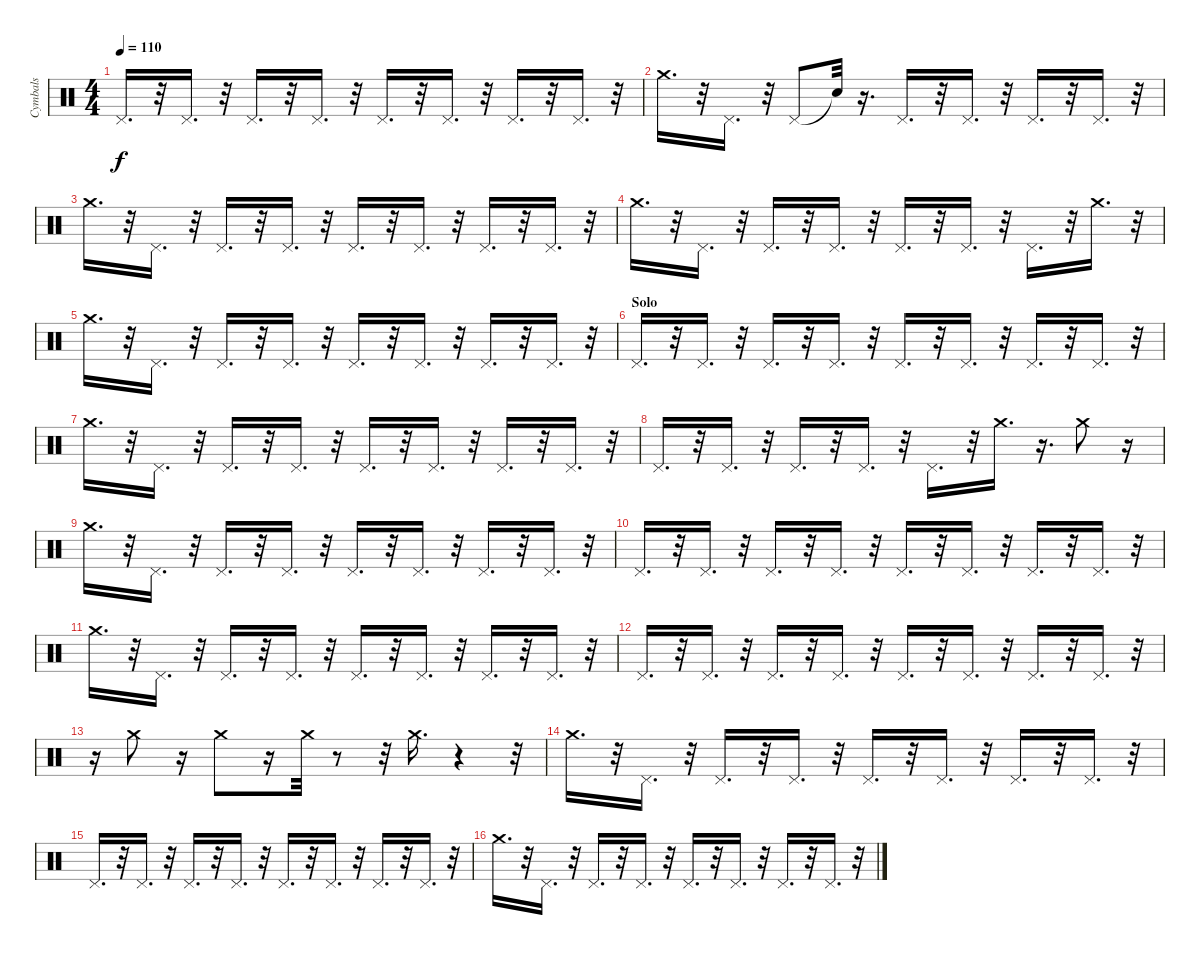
\track ("Cymbals" "Cymbals") {instrument percussion}
\staff {score}
\articulation defaults
\ts (4 4)
\tempo 110
\clef neutral
\ks c "Pedal Hi-Hat (hit)".16{d dy f}
r.32 "Pedal Hi-Hat (hit)".16{d} r.32 "Pedal Hi-Hat (hit)".16{d} r.32 "Pedal Hi-Hat (hit)".16{d} r.32 "Pedal Hi-Hat (hit)".16{d} r.32 "Pedal Hi-Hat (hit)".16{d} r.32 "Pedal Hi-Hat (hit)".16{d} r.32 "Pedal Hi-Hat (hit)".16{d} r.32 |
"Crash medium (hit)".16{d} r.32 "Pedal Hi-Hat (hit)".16{d} r.32 "Pedal Hi-Hat (hit)".8 "Snare (hit)"{t}.32 r.16{d} "Pedal Hi-Hat (hit)".16{d} r.32 "Pedal Hi-Hat (hit)".16{d} r.32 "Pedal Hi-Hat (hit)".16{d} r.32 "Pedal Hi-Hat (hit)".16{d} r.32 |
"Crash medium (hit)".16{d} r.32 "Pedal Hi-Hat (hit)".16{d} r.32 "Pedal Hi-Hat (hit)".16{d} r.32 "Pedal Hi-Hat (hit)".16{d} r.32 "Pedal Hi-Hat (hit)".16{d} r.32 "Pedal Hi-Hat (hit)".16{d} r.32 "Pedal Hi-Hat (hit)".16{d} r.32 "Pedal Hi-Hat (hit)".16{d} r.32 |
"Crash medium (hit)".16{d} r.32 "Pedal Hi-Hat (hit)".16{d} r.32 "Pedal Hi-Hat (hit)".16{d} r.32 "Pedal Hi-Hat (hit)".16{d} r.32 "Pedal Hi-Hat (hit)".16{d} r.32 "Pedal Hi-Hat (hit)".16{d} r.32 "Pedal Hi-Hat (hit)".16{d} r.32 "Crash medium (hit)".16{d} r.32 |
"Crash medium (hit)".16{d} r.32 "Pedal Hi-Hat (hit)".16{d} r.32 "Pedal Hi-Hat (hit)".16{d} r.32 "Pedal Hi-Hat (hit)".16{d} r.32 "Pedal Hi-Hat (hit)".16{d} r.32 "Pedal Hi-Hat (hit)".16{d} r.32 "Pedal Hi-Hat (hit)".16{d} r.32 "Pedal Hi-Hat (hit)".16{d} r.32 |
\section ("" "Solo")
"Pedal Hi-Hat (hit)".16{d} r.32 "Pedal Hi-Hat (hit)".16{d} r.32 "Pedal Hi-Hat (hit)".16{d} r.32 "Pedal Hi-Hat (hit)".16{d} r.32 "Pedal Hi-Hat (hit)".16{d} r.32 "Pedal Hi-Hat (hit)".16{d} r.32 "Pedal Hi-Hat (hit)".16{d} r.32 "Pedal Hi-Hat (hit)".16{d} r.32 |
"Crash medium (hit)".16{d} r.32 "Pedal Hi-Hat (hit)".16{d} r.32 "Pedal Hi-Hat (hit)".16{d} r.32 "Pedal Hi-Hat (hit)".16{d} r.32 "Pedal Hi-Hat (hit)".16{d} r.32 "Pedal Hi-Hat (hit)".16{d} r.32 "Pedal Hi-Hat (hit)".16{d} r.32 "Pedal Hi-Hat (hit)".16{d} r.32 |
"Pedal Hi-Hat (hit)".16{d} r.32 "Pedal Hi-Hat (hit)".16{d} r.32 "Pedal Hi-Hat (hit)".16{d} r.32 "Pedal Hi-Hat (hit)".16{d} r.32 "Pedal Hi-Hat (hit)".16{d} r.32 "Crash medium (hit)".16{d} r.16{d} "Crash medium (hit)".8 r.16 |
"Crash medium (hit)".16{d} r.32 "Pedal Hi-Hat (hit)".16{d} r.32 "Pedal Hi-Hat (hit)".16{d} r.32 "Pedal Hi-Hat (hit)".16{d} r.32 "Pedal Hi-Hat (hit)".16{d} r.32 "Pedal Hi-Hat (hit)".16{d} r.32 "Pedal Hi-Hat (hit)".16{d} r.32 "Pedal Hi-Hat (hit)".16{d} r.32 |
"Pedal Hi-Hat (hit)".16{d} r.32 "Pedal Hi-Hat (hit)".16{d} r.32 "Pedal Hi-Hat (hit)".16{d} r.32 "Pedal Hi-Hat (hit)".16{d} r.32 "Pedal Hi-Hat (hit)".16{d} r.32 "Pedal Hi-Hat (hit)".16{d} r.32 "Pedal Hi-Hat (hit)".16{d} r.32 "Pedal Hi-Hat (hit)".16{d} r.32 |
"Crash medium (hit)".16{d} r.32 "Pedal Hi-Hat (hit)".16{d} r.32 "Pedal Hi-Hat (hit)".16{d} r.32 "Pedal Hi-Hat (hit)".16{d} r.32 "Pedal Hi-Hat (hit)".16{d} r.32 "Pedal Hi-Hat (hit)".16{d} r.32 "Pedal Hi-Hat (hit)".16{d} r.32 "Pedal Hi-Hat (hit)".16{d} r.32 |
"Pedal Hi-Hat (hit)".16{d} r.32 "Pedal Hi-Hat (hit)".16{d} r.32 "Pedal Hi-Hat (hit)".16{d} r.32 "Pedal Hi-Hat (hit)".16{d} r.32 "Pedal Hi-Hat (hit)".16{d} r.32 "Pedal Hi-Hat (hit)".16{d} r.32 "Pedal Hi-Hat (hit)".16{d} r.32 "Pedal Hi-Hat (hit)".16{d} r.32 |
r.16 "Crash medium (hit)".8 r.16 "Crash medium (hit)".8 r.16 "Crash medium (hit)".32 r.8 r.32 "Crash medium (hit)".16{d} r.4 r.32 |
"Crash medium (hit)".16{d} r.32 "Pedal Hi-Hat (hit)".16{d} r.32 "Pedal Hi-Hat (hit)".16{d} r.32 "Pedal Hi-Hat (hit)".16{d} r.32 "Pedal Hi-Hat (hit)".16{d} r.32 "Pedal Hi-Hat (hit)".16{d} r.32 "Pedal Hi-Hat (hit)".16{d} r.32 "Pedal Hi-Hat (hit)".16{d} r.32 |
"Pedal Hi-Hat (hit)".16{d} r.32 "Pedal Hi-Hat (hit)".16{d} r.32 "Pedal Hi-Hat (hit)".16{d} r.32 "Pedal Hi-Hat (hit)".16{d} r.32 "Pedal Hi-Hat (hit)".16{d} r.32 "Pedal Hi-Hat (hit)".16{d} r.32 "Pedal Hi-Hat (hit)".16{d} r.32 "Pedal Hi-Hat (hit)".16{d} r.32 |
"Crash medium (hit)".16{d} r.32 "Pedal Hi-Hat (hit)".16{d} r.32 "Pedal Hi-Hat (hit)".16{d} r.32 "Pedal Hi-Hat (hit)".16{d} r.32 "Pedal Hi-Hat (hit)".16{d} r.32 "Pedal Hi-Hat (hit)".16{d} r.32 "Pedal Hi-Hat (hit)".16{d} r.32 "Pedal Hi-Hat (hit)".16{d} r.32
